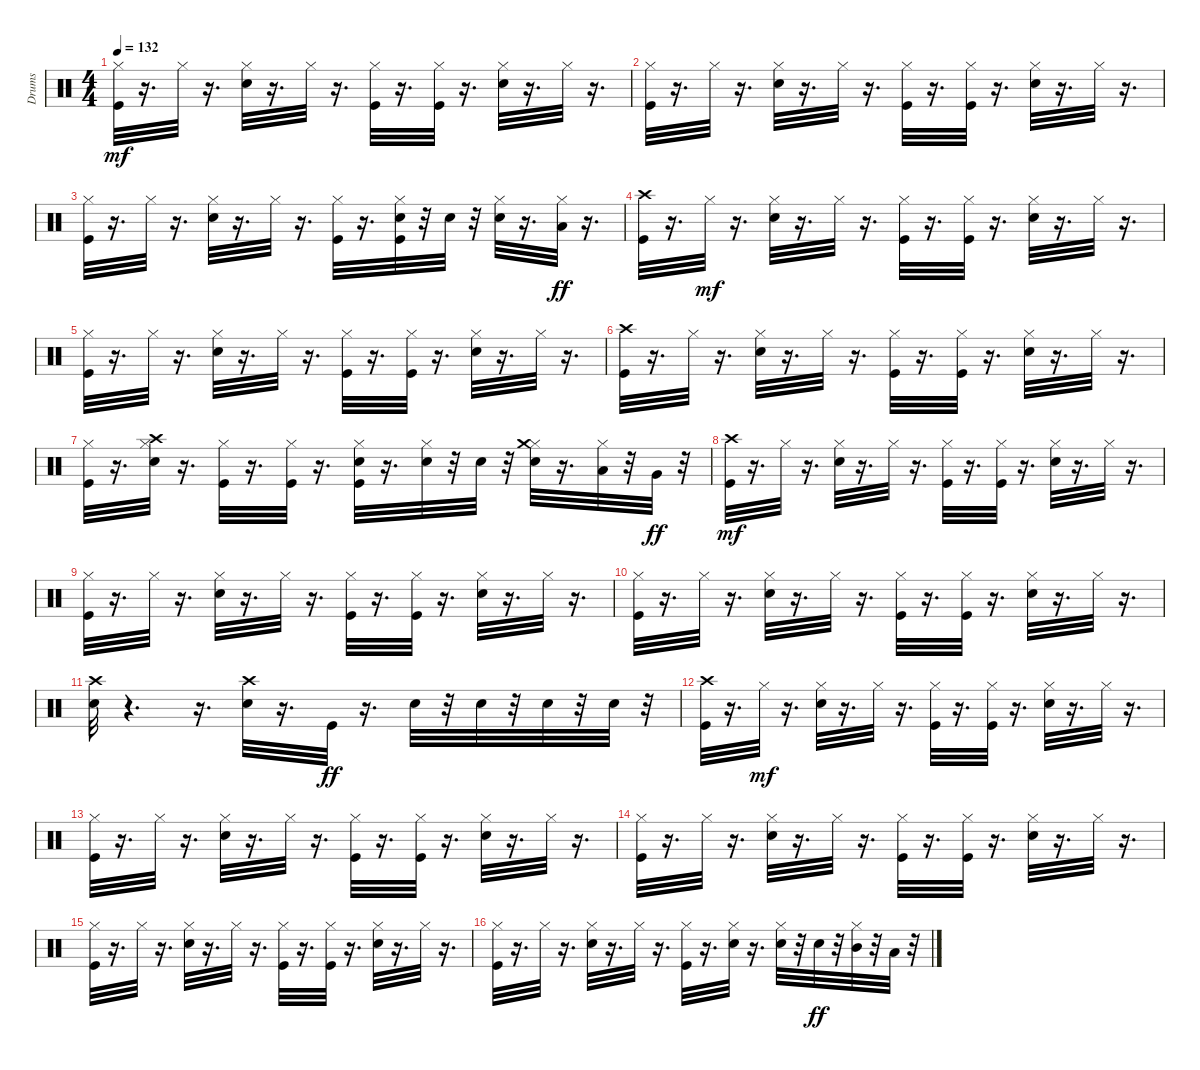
\track ("Drums" "Drums") {instrument percussion}
\staff {score}
\articulation defaults
\ts (4 4)
\tempo 132
\clef neutral
\ks c
("Kick (hit)" "Hi-Hat (closed)").32{dy mf} r.16{d} "Hi-Hat (closed)".32 r.16{d} ("Electric Snare (hit)" "Hi-Hat (closed)").32 r.16{d} "Hi-Hat (closed)".32 r.16{d} ("Kick (hit)" "Hi-Hat (closed)").32 r.16{d} ("Kick (hit)" "Hi-Hat (closed)").32 r.16{d} ("Electric Snare (hit)" "Hi-Hat (closed)").32 r.16{d} "Hi-Hat (closed)".32 r.16{d} |
("Kick (hit)" "Hi-Hat (closed)").32 r.16{d} "Hi-Hat (closed)".32 r.16{d} ("Electric Snare (hit)" "Hi-Hat (closed)").32 r.16{d} "Hi-Hat (closed)".32 r.16{d} ("Kick (hit)" "Hi-Hat (closed)").32 r.16{d} ("Kick (hit)" "Hi-Hat (closed)").32 r.16{d} ("Electric Snare (hit)" "Hi-Hat (closed)").32 r.16{d} "Hi-Hat (closed)".32 r.16{d} |
("Kick (hit)" "Hi-Hat (closed)").32 r.16{d} "Hi-Hat (closed)".32 r.16{d} ("Electric Snare (hit)" "Hi-Hat (closed)").32 r.16{d} "Hi-Hat (closed)".32 r.16{d} ("Kick (hit)" "Hi-Hat (closed)").32 r.16{d} ("Kick (hit)" "Electric Snare (hit)" "Hi-Hat (closed)").32 r.32 "Electric Snare (hit)".32 r.32 ("Electric Snare (hit)" "Hi-Hat (closed)").32 r.16{d} ("Hi-Hat (closed)" "Low Tom (hit)").32{dy ff} r.16{d} |
("Kick (hit)" "Crash high (hit)").32 r.16{d} "Hi-Hat (closed)".32{dy mf} r.16{d} ("Electric Snare (hit)" "Hi-Hat (closed)").32 r.16{d} "Hi-Hat (closed)".32 r.16{d} ("Kick (hit)" "Hi-Hat (closed)").32 r.16{d} ("Kick (hit)" "Hi-Hat (closed)").32 r.16{d} ("Electric Snare (hit)" "Hi-Hat (closed)").32 r.16{d} "Hi-Hat (closed)".32 r.16{d} |
("Kick (hit)" "Hi-Hat (closed)").32 r.16{d} "Hi-Hat (closed)".32 r.16{d} ("Electric Snare (hit)" "Hi-Hat (closed)").32 r.16{d} "Hi-Hat (closed)".32 r.16{d} ("Kick (hit)" "Hi-Hat (closed)").32 r.16{d} ("Kick (hit)" "Hi-Hat (closed)").32 r.16{d} ("Electric Snare (hit)" "Hi-Hat (closed)").32 r.16{d} "Hi-Hat (closed)".32 r.16{d} |
("Kick (hit)" "Crash high (hit)").32 r.16{d} "Hi-Hat (closed)".32 r.16{d} ("Electric Snare (hit)" "Hi-Hat (closed)").32 r.16{d} "Hi-Hat (closed)".32 r.16{d} ("Kick (hit)" "Hi-Hat (closed)").32 r.16{d} ("Kick (hit)" "Hi-Hat (closed)").32 r.16{d} ("Electric Snare (hit)" "Hi-Hat (closed)").32 r.16{d} "Hi-Hat (closed)".32 r.16{d} |
("Kick (hit)" "Hi-Hat (closed)").32 r.16{d} ("Electric Snare (hit)" "Hi-Hat (closed)" "Crash high (hit)").32 r.16{d} ("Kick (hit)" "Hi-Hat (closed)").32 r.16{d} ("Kick (hit)" "Hi-Hat (closed)").32 r.16{d} ("Kick (hit)" "Electric Snare (hit)" "Hi-Hat (closed)").32 r.16{d} ("Electric Snare (hit)" "Hi-Hat (closed)").32 r.32 "Electric Snare (hit)".32 r.32 ("Electric Snare (hit)" "Hi-Hat (closed)" "Crash medium (hit)").32 r.16{d} ("Hi-Hat (closed)" "Low Tom (hit)").32 r.32 "Very Low Tom (hit)".32{dy ff} r.32 |
("Kick (hit)" "Crash high (hit)").32{dy mf} r.16{d} "Hi-Hat (closed)".32 r.16{d} ("Electric Snare (hit)" "Hi-Hat (closed)").32 r.16{d} "Hi-Hat (closed)".32 r.16{d} ("Kick (hit)" "Hi-Hat (closed)").32 r.16{d} ("Kick (hit)" "Hi-Hat (closed)").32 r.16{d} ("Electric Snare (hit)" "Hi-Hat (closed)").32 r.16{d} "Hi-Hat (closed)".32 r.16{d} |
("Kick (hit)" "Hi-Hat (closed)").32 r.16{d} "Hi-Hat (closed)".32 r.16{d} ("Electric Snare (hit)" "Hi-Hat (closed)").32 r.16{d} "Hi-Hat (closed)".32 r.16{d} ("Kick (hit)" "Hi-Hat (closed)").32 r.16{d} ("Kick (hit)" "Hi-Hat (closed)").32 r.16{d} ("Electric Snare (hit)" "Hi-Hat (closed)").32 r.16{d} "Hi-Hat (closed)".32 r.16{d} |
("Kick (hit)" "Hi-Hat (closed)").32 r.16{d} "Hi-Hat (closed)".32 r.16{d} ("Electric Snare (hit)" "Hi-Hat (closed)").32 r.16{d} "Hi-Hat (closed)".32 r.16{d} ("Kick (hit)" "Hi-Hat (closed)").32 r.16{d} ("Kick (hit)" "Hi-Hat (closed)").32 r.16{d} ("Electric Snare (hit)" "Hi-Hat (closed)").32 r.16{d} "Hi-Hat (closed)".32 r.16{d} |
("Electric Snare (hit)" "Crash high (hit)").32 r.4{d} r.16{d} ("Electric Snare (hit)" "Crash high (hit)").32 r.16{d} "Kick (hit)".32{dy ff} r.16{d} "Electric Snare (hit)".32 r.32 "Electric Snare (hit)".32 r.32 "Electric Snare (hit)".32 r.32 "Electric Snare (hit)".32 r.32 |
("Kick (hit)" "Crash high (hit)").32 r.16{d} "Hi-Hat (closed)".32{dy mf} r.16{d} ("Electric Snare (hit)" "Hi-Hat (closed)").32 r.16{d} "Hi-Hat (closed)".32 r.16{d} ("Kick (hit)" "Hi-Hat (closed)").32 r.16{d} ("Kick (hit)" "Hi-Hat (closed)").32 r.16{d} ("Electric Snare (hit)" "Hi-Hat (closed)").32 r.16{d} "Hi-Hat (closed)".32 r.16{d} |
("Kick (hit)" "Hi-Hat (closed)").32 r.16{d} "Hi-Hat (closed)".32 r.16{d} ("Electric Snare (hit)" "Hi-Hat (closed)").32 r.16{d} "Hi-Hat (closed)".32 r.16{d} ("Kick (hit)" "Hi-Hat (closed)").32 r.16{d} ("Kick (hit)" "Hi-Hat (closed)").32 r.16{d} ("Electric Snare (hit)" "Hi-Hat (closed)").32 r.16{d} "Hi-Hat (closed)".32 r.16{d} |
("Kick (hit)" "Hi-Hat (closed)").32 r.16{d} "Hi-Hat (closed)".32 r.16{d} ("Electric Snare (hit)" "Hi-Hat (closed)").32 r.16{d} "Hi-Hat (closed)".32 r.16{d} ("Kick (hit)" "Hi-Hat (closed)").32 r.16{d} ("Kick (hit)" "Hi-Hat (closed)").32 r.16{d} ("Electric Snare (hit)" "Hi-Hat (closed)").32 r.16{d} "Hi-Hat (closed)".32 r.16{d} |
("Kick (hit)" "Hi-Hat (closed)").32 r.16{d} "Hi-Hat (closed)".32 r.16{d} ("Electric Snare (hit)" "Hi-Hat (closed)").32 r.16{d} "Hi-Hat (closed)".32 r.16{d} ("Kick (hit)" "Hi-Hat (closed)").32 r.16{d} ("Kick (hit)" "Hi-Hat (closed)").32 r.16{d} ("Electric Snare (hit)" "Hi-Hat (closed)").32 r.16{d} "Hi-Hat (closed)".32 r.16{d} |
("Kick (hit)" "Hi-Hat (closed)").32 r.16{d} "Hi-Hat (closed)".32 r.16{d} ("Electric Snare (hit)" "Hi-Hat (closed)").32 r.16{d} "Hi-Hat (closed)".32 r.16{d} ("Kick (hit)" "Hi-Hat (closed)").32 r.16{d} ("Electric Snare (hit)" "Hi-Hat (closed)").32 r.16{d} ("Electric Snare (hit)" "Hi-Hat (closed)").32 r.32 "Electric Snare (hit)".32{dy ff} r.32 ("Hi-Hat (closed)" "Mid Tom (hit)").32 r.32 "Low Tom (hit)".32 r.32
